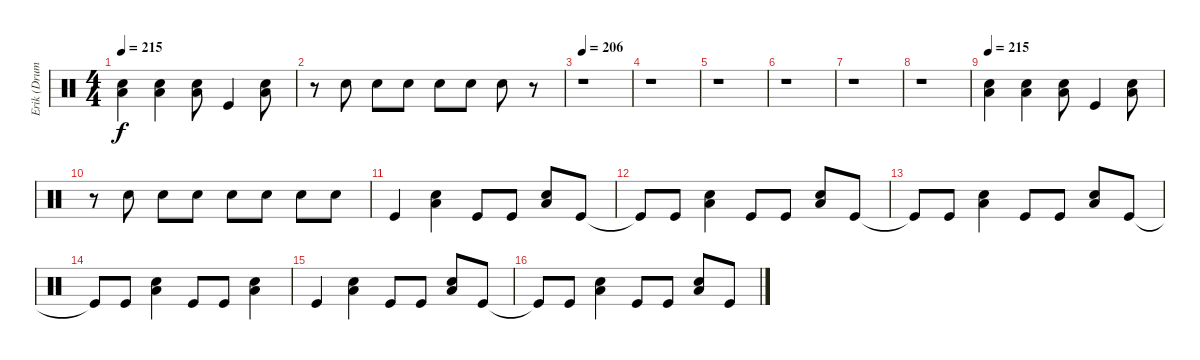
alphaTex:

\track ("Erik (Drums)" "Erik (Drum") {instrument percussion}
\staff {score}
\articulation defaults
\ts (4 4)
\tempo 215
\clef neutral
\ks c
("Low Tom (hit)" "Snare (hit) 2").4{dy f} ("Low Tom (hit)" "Snare (hit) 2").4 ("Low Tom (hit)" "Snare (hit) 2").8 "Kick (hit)".4 ("Low Tom (hit)" "Snare (hit) 2").8 |
r.8 "Snare (hit) 2".8 "Snare (hit) 2".8 "Snare (hit) 2".8 "Snare (hit) 2".8 "Snare (hit) 2".8 "Snare (hit) 2".8 r.8 |
\tempo 206
r.1 |
r.1 |
r.1 |
r.1 |
r.1 |
r.1 |
\tempo 215
("Low Tom (hit)" "Snare (hit) 2").4 ("Low Tom (hit)" "Snare (hit) 2").4 ("Low Tom (hit)" "Snare (hit) 2").8 "Kick (hit)".4 ("Low Tom (hit)" "Snare (hit) 2").8 |
r.8 "Snare (hit) 2".8 "Snare (hit) 2".8 "Snare (hit) 2".8 "Snare (hit) 2".8 "Snare (hit) 2".8 "Snare (hit) 2".8 "Snare (hit) 2".8 |
"Kick (hit)".4 ("Low Tom (hit)" "Snare (hit) 2").4 "Kick (hit)".8 "Kick (hit)".8 ("Low Tom (hit)" "Snare (hit) 2").8 "Kick (hit)".8 |
"Kick (hit)"{t}.8 "Kick (hit)".8 ("Low Tom (hit)" "Snare (hit) 2").4 "Kick (hit)".8 "Kick (hit)".8 ("Low Tom (hit)" "Snare (hit) 2").8 "Kick (hit)".8 |
"Kick (hit)"{t}.8 "Kick (hit)".8 ("Low Tom (hit)" "Snare (hit) 2").4 "Kick (hit)".8 "Kick (hit)".8 ("Low Tom (hit)" "Snare (hit) 2").8 "Kick (hit)".8 |
"Kick (hit)"{t}.8 "Kick (hit)".8 ("Low Tom (hit)" "Snare (hit) 2").4 "Kick (hit)".8 "Kick (hit)".8 ("Low Tom (hit)" "Snare (hit) 2").4 |
"Kick (hit)".4 ("Low Tom (hit)" "Snare (hit) 2").4 "Kick (hit)".8 "Kick (hit)".8 ("Low Tom (hit)" "Snare (hit) 2").8 "Kick (hit)".8 |
"Kick (hit)"{t}.8 "Kick (hit)".8 ("Low Tom (hit)" "Snare (hit) 2").4 "Kick (hit)".8 "Kick (hit)".8 ("Low Tom (hit)" "Snare (hit) 2").8 "Kick (hit)".8
